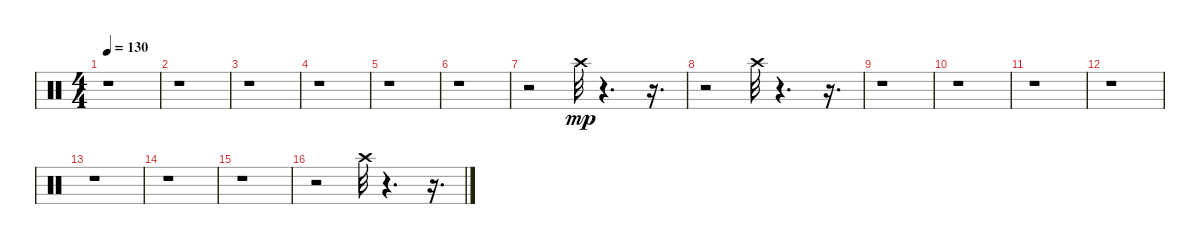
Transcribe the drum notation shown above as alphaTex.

\track "" {instrument percussion}
\staff {score}
\articulation defaults
\ts (4 4)
\tempo 130
\clef neutral
\ks c
r.1{dy mp} |
r.1 |
r.1 |
r.1 |
r.1 |
r.1 |
r.2 "Crash high (hit)".32 r.4{d} r.16{d} |
r.2 "Crash high (hit)".32 r.4{d} r.16{d} |
r.1 |
r.1 |
r.1 |
r.1 |
r.1 |
r.1 |
r.1 |
r.2 "Crash high (hit)".32 r.4{d} r.16{d}
